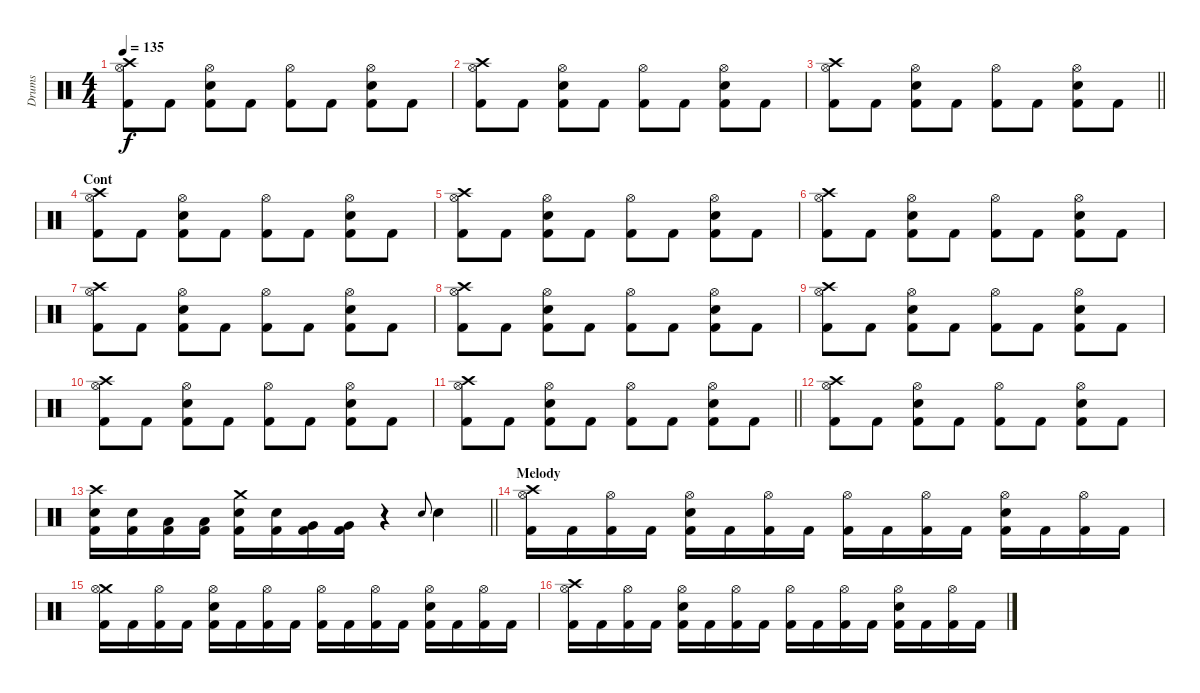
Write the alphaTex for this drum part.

\track ("Drums" "Drums") {instrument percussion}
\staff {score}
\articulation defaults
\ts (4 4)
\tempo 135
\clef neutral
\ks c
("Crash high (hit)" "Hi-Hat (open)" "Kick (hit) 2").8{dy f} "Kick (hit) 2".8 ("Hi-Hat (open)" "Snare (hit) 2" "Kick (hit) 2").8 "Kick (hit) 2".8 ("Hi-Hat (open)" "Kick (hit) 2").8 "Kick (hit) 2".8 ("Hi-Hat (open)" "Snare (hit) 2" "Kick (hit) 2").8 "Kick (hit) 2".8 |
("Crash high (hit)" "Hi-Hat (open)" "Kick (hit) 2").8 "Kick (hit) 2".8 ("Hi-Hat (open)" "Snare (hit) 2" "Kick (hit) 2").8 "Kick (hit) 2".8 ("Hi-Hat (open)" "Kick (hit) 2").8 "Kick (hit) 2".8 ("Hi-Hat (open)" "Snare (hit) 2" "Kick (hit) 2").8 "Kick (hit) 2".8 |
\barLineRight lightlight
("Crash high (hit)" "Hi-Hat (open)" "Kick (hit) 2").8 "Kick (hit) 2".8 ("Hi-Hat (open)" "Snare (hit) 2" "Kick (hit) 2").8 "Kick (hit) 2".8 ("Hi-Hat (open)" "Kick (hit) 2").8 "Kick (hit) 2".8 ("Hi-Hat (open)" "Snare (hit) 2" "Kick (hit) 2").8 "Kick (hit) 2".8 |
\section ("" "Cont")
("Crash high (hit)" "Hi-Hat (open)" "Kick (hit) 2").8 "Kick (hit) 2".8 ("Hi-Hat (open)" "Snare (hit) 2" "Kick (hit) 2").8 "Kick (hit) 2".8 ("Hi-Hat (open)" "Kick (hit) 2").8 "Kick (hit) 2".8 ("Hi-Hat (open)" "Snare (hit) 2" "Kick (hit) 2").8 "Kick (hit) 2".8 |
("Crash high (hit)" "Hi-Hat (open)" "Kick (hit) 2").8 "Kick (hit) 2".8 ("Hi-Hat (open)" "Snare (hit) 2" "Kick (hit) 2").8 "Kick (hit) 2".8 ("Hi-Hat (open)" "Kick (hit) 2").8 "Kick (hit) 2".8 ("Hi-Hat (open)" "Snare (hit) 2" "Kick (hit) 2").8 "Kick (hit) 2".8 |
("Crash high (hit)" "Hi-Hat (open)" "Kick (hit) 2").8 "Kick (hit) 2".8 ("Hi-Hat (open)" "Snare (hit) 2" "Kick (hit) 2").8 "Kick (hit) 2".8 ("Hi-Hat (open)" "Kick (hit) 2").8 "Kick (hit) 2".8 ("Hi-Hat (open)" "Snare (hit) 2" "Kick (hit) 2").8 "Kick (hit) 2".8 |
("Crash high (hit)" "Hi-Hat (open)" "Kick (hit) 2").8 "Kick (hit) 2".8 ("Hi-Hat (open)" "Snare (hit) 2" "Kick (hit) 2").8 "Kick (hit) 2".8 ("Hi-Hat (open)" "Kick (hit) 2").8 "Kick (hit) 2".8 ("Hi-Hat (open)" "Snare (hit) 2" "Kick (hit) 2").8 "Kick (hit) 2".8 |
("Crash high (hit)" "Hi-Hat (open)" "Kick (hit) 2").8 "Kick (hit) 2".8 ("Hi-Hat (open)" "Snare (hit) 2" "Kick (hit) 2").8 "Kick (hit) 2".8 ("Hi-Hat (open)" "Kick (hit) 2").8 "Kick (hit) 2".8 ("Hi-Hat (open)" "Snare (hit) 2" "Kick (hit) 2").8 "Kick (hit) 2".8 |
("Crash high (hit)" "Hi-Hat (open)" "Kick (hit) 2").8 "Kick (hit) 2".8 ("Hi-Hat (open)" "Snare (hit) 2" "Kick (hit) 2").8 "Kick (hit) 2".8 ("Hi-Hat (open)" "Kick (hit) 2").8 "Kick (hit) 2".8 ("Hi-Hat (open)" "Snare (hit) 2" "Kick (hit) 2").8 "Kick (hit) 2".8 |
("Crash high (hit)" "Hi-Hat (open)" "Kick (hit) 2").8 "Kick (hit) 2".8 ("Hi-Hat (open)" "Snare (hit) 2" "Kick (hit) 2").8 "Kick (hit) 2".8 ("Hi-Hat (open)" "Kick (hit) 2").8 "Kick (hit) 2".8 ("Hi-Hat (open)" "Snare (hit) 2" "Kick (hit) 2").8 "Kick (hit) 2".8 |
\barLineRight lightlight
("Crash high (hit)" "Hi-Hat (open)" "Kick (hit) 2").8 "Kick (hit) 2".8 ("Hi-Hat (open)" "Snare (hit) 2" "Kick (hit) 2").8 "Kick (hit) 2".8 ("Hi-Hat (open)" "Kick (hit) 2").8 "Kick (hit) 2".8 ("Hi-Hat (open)" "Snare (hit) 2" "Kick (hit) 2").8 "Kick (hit) 2".8 |
("Crash high (hit)" "Hi-Hat (open)" "Kick (hit) 2").8 "Kick (hit) 2".8 ("Hi-Hat (open)" "Snare (hit) 2" "Kick (hit) 2").8 "Kick (hit) 2".8 ("Hi-Hat (open)" "Kick (hit) 2").8 "Kick (hit) 2".8 ("Hi-Hat (open)" "Snare (hit) 2" "Kick (hit) 2").8 "Kick (hit) 2".8 |
\barLineRight lightlight
("Crash high (hit)" "Snare (hit) 2" "Kick (hit) 2").16 ("Snare (hit) 2" "Kick (hit) 2").16 ("Low Tom (hit)" "Kick (hit) 2").16 ("Low Tom (hit)" "Kick (hit) 2").16 ("Crash medium (hit)" "Snare (hit) 2" "Kick (hit) 2").16 ("Snare (hit) 2" "Kick (hit) 2").16 ("Very Low Tom (hit)" "Kick (hit) 2").16 ("Very Low Tom (hit)" "Kick (hit) 2").16 r.4 "Snare (hit) 2".8{gr onbeat} "Snare (hit) 2".4 |
\section ("" "Melody")
("Crash high (hit)" "Hi-Hat (open)" "Kick (hit) 2").16 "Kick (hit) 2".16 ("Hi-Hat (open)" "Kick (hit) 2").16 "Kick (hit) 2".16 ("Hi-Hat (open)" "Snare (hit) 2" "Kick (hit) 2").16 "Kick (hit) 2".16 ("Hi-Hat (open)" "Kick (hit) 2").16 "Kick (hit) 2".16 ("Hi-Hat (open)" "Kick (hit) 2").16 "Kick (hit) 2".16 ("Hi-Hat (open)" "Kick (hit) 2").16 "Kick (hit) 2".16 ("Hi-Hat (open)" "Snare (hit) 2" "Kick (hit) 2").16 "Kick (hit) 2".16 ("Hi-Hat (open)" "Kick (hit) 2").16 "Kick (hit) 2".16 |
("Crash medium (hit)" "Hi-Hat (open)" "Kick (hit) 2").16 "Kick (hit) 2".16 ("Hi-Hat (open)" "Kick (hit) 2").16 "Kick (hit) 2".16 ("Hi-Hat (open)" "Snare (hit) 2" "Kick (hit) 2").16 "Kick (hit) 2".16 ("Hi-Hat (open)" "Kick (hit) 2").16 "Kick (hit) 2".16 ("Hi-Hat (open)" "Kick (hit) 2").16 "Kick (hit) 2".16 ("Hi-Hat (open)" "Kick (hit) 2").16 "Kick (hit) 2".16 ("Hi-Hat (open)" "Snare (hit) 2" "Kick (hit) 2").16 "Kick (hit) 2".16 ("Hi-Hat (open)" "Kick (hit) 2").16 "Kick (hit) 2".16 |
("Crash high (hit)" "Hi-Hat (open)" "Kick (hit) 2").16 "Kick (hit) 2".16 ("Hi-Hat (open)" "Kick (hit) 2").16 "Kick (hit) 2".16 ("Hi-Hat (open)" "Snare (hit) 2" "Kick (hit) 2").16 "Kick (hit) 2".16 ("Hi-Hat (open)" "Kick (hit) 2").16 "Kick (hit) 2".16 ("Hi-Hat (open)" "Kick (hit) 2").16 "Kick (hit) 2".16 ("Hi-Hat (open)" "Kick (hit) 2").16 "Kick (hit) 2".16 ("Hi-Hat (open)" "Snare (hit) 2" "Kick (hit) 2").16 "Kick (hit) 2".16 ("Hi-Hat (open)" "Kick (hit) 2").16 "Kick (hit) 2".16
